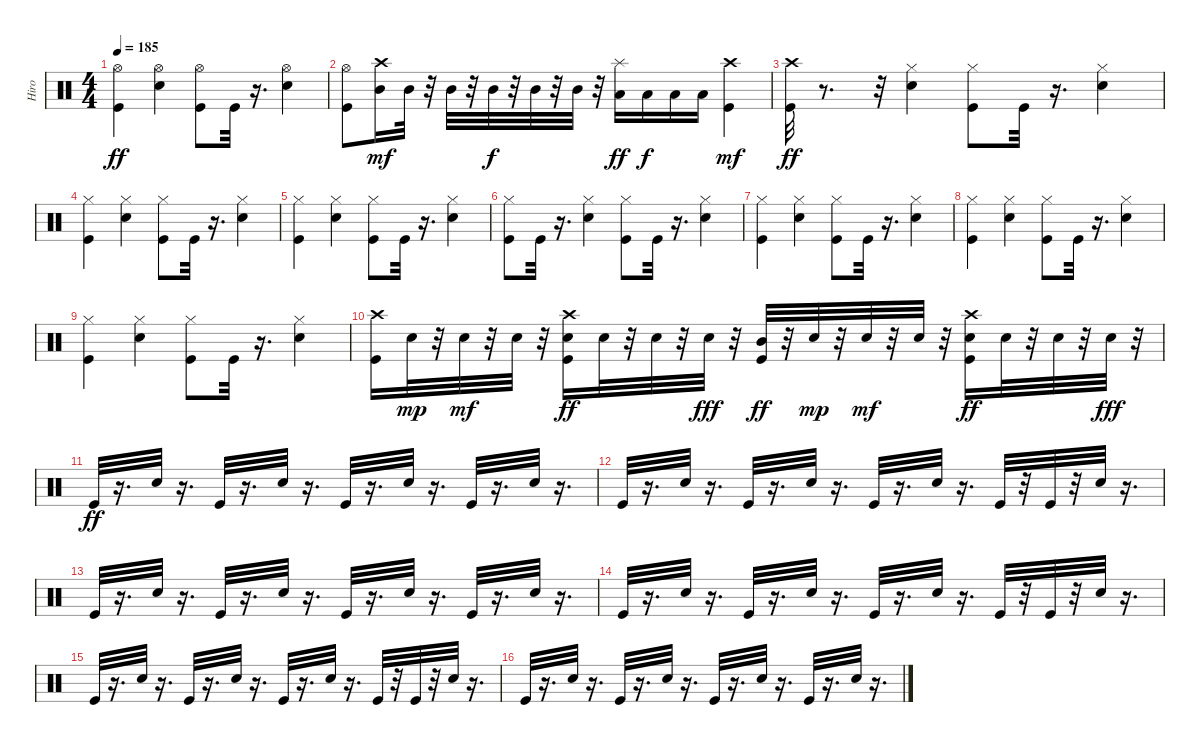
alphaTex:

\track ("Hiro" "Hiro") {instrument percussion}
\staff {score}
\articulation defaults
\ts (4 4)
\tempo 185
\clef neutral
\ks c
("Hi-Hat (open)" "Kick (hit)").4{dy ff} ("Hi-Hat (open)" "Electric Snare (hit)").4 ("Hi-Hat (open)" "Kick (hit)").8 "Kick (hit)".32 r.16{d} ("Hi-Hat (open)" "Electric Snare (hit)").4 |
("Hi-Hat (open)" "Kick (hit)").8 ("Crash high (hit)" "Mid Tom (hit)").16{dy mf} "Mid Tom (hit)".32 r.32 "Mid Tom (hit)".32 r.32 "Mid Tom (hit)".32{dy f} r.32 "Mid Tom (hit)".32 r.32 "Mid Tom (hit)".32 r.32 ("Splash (hit)" "Low Tom (hit)").16{dy ff} "Low Tom (hit)".16{dy f} "Low Tom (hit)".16 "Low Tom (hit)".16 ("Crash high (hit)" "Kick (hit)").4{dy mf} |
("Crash high (hit)" "Kick (hit)").32{dy ff} r.8{d} r.32 ("Hi-Hat (closed)" "Electric Snare (hit)").4 ("Hi-Hat (closed)" "Kick (hit)").8 "Kick (hit)".32 r.16{d} ("Hi-Hat (closed)" "Electric Snare (hit)").4 |
("Hi-Hat (closed)" "Kick (hit)").4 ("Hi-Hat (closed)" "Electric Snare (hit)").4 ("Hi-Hat (closed)" "Kick (hit)").8 "Kick (hit)".32 r.16{d} ("Hi-Hat (closed)" "Electric Snare (hit)").4 |
("Hi-Hat (closed)" "Kick (hit)").4 ("Hi-Hat (closed)" "Electric Snare (hit)").4 ("Hi-Hat (closed)" "Kick (hit)").8 "Kick (hit)".32 r.16{d} ("Hi-Hat (closed)" "Electric Snare (hit)").4 |
("Hi-Hat (closed)" "Kick (hit)").8 "Kick (hit)".32 r.16{d} ("Hi-Hat (closed)" "Electric Snare (hit)").4 ("Hi-Hat (closed)" "Kick (hit)").8 "Kick (hit)".32 r.16{d} ("Hi-Hat (closed)" "Electric Snare (hit)").4 |
("Hi-Hat (closed)" "Kick (hit)").4 ("Hi-Hat (closed)" "Electric Snare (hit)").4 ("Hi-Hat (closed)" "Kick (hit)").8 "Kick (hit)".32 r.16{d} ("Hi-Hat (closed)" "Electric Snare (hit)").4 |
("Hi-Hat (closed)" "Kick (hit)").4 ("Hi-Hat (closed)" "Electric Snare (hit)").4 ("Hi-Hat (closed)" "Kick (hit)").8 "Kick (hit)".32 r.16{d} ("Hi-Hat (closed)" "Electric Snare (hit)").4 |
("Hi-Hat (closed)" "Kick (hit)").4 ("Hi-Hat (closed)" "Electric Snare (hit)").4 ("Hi-Hat (closed)" "Kick (hit)").8 "Kick (hit)".32 r.16{d} ("Hi-Hat (closed)" "Electric Snare (hit)").4 |
("Crash high (hit)" "Kick (hit)").16 "Electric Snare (hit)".32{dy mp} r.32 "Electric Snare (hit)".32{dy mf} r.32 "Electric Snare (hit)".32 r.32 ("Crash high (hit)" "Electric Snare (hit)" "Kick (hit)").16{dy ff} "Electric Snare (hit)".32 r.32 "Electric Snare (hit)".32 r.32 "Electric Snare (hit)".32{dy fff} r.32 ("Mid Tom (hit)" "Kick (hit)").32{dy ff} r.32 "Electric Snare (hit)".32{dy mp} r.32 "Electric Snare (hit)".32{dy mf} r.32 "Electric Snare (hit)".32 r.32 ("Crash high (hit)" "Electric Snare (hit)" "Kick (hit)").16{dy ff} "Electric Snare (hit)".32 r.32 "Electric Snare (hit)".32 r.32 "Electric Snare (hit)".32{dy fff} r.32 |
"Kick (hit)".32{dy ff} r.16{d} "Electric Snare (hit)".32 r.16{d} "Kick (hit)".32 r.16{d} "Electric Snare (hit)".32 r.16{d} "Kick (hit)".32 r.16{d} "Electric Snare (hit)".32 r.16{d} "Kick (hit)".32 r.16{d} "Electric Snare (hit)".32 r.16{d} |
"Kick (hit)".32 r.16{d} "Electric Snare (hit)".32 r.16{d} "Kick (hit)".32 r.16{d} "Electric Snare (hit)".32 r.16{d} "Kick (hit)".32 r.16{d} "Electric Snare (hit)".32 r.16{d} "Kick (hit)".32 r.32 "Kick (hit)".32 r.32 "Electric Snare (hit)".32 r.16{d} |
"Kick (hit)".32 r.16{d} "Electric Snare (hit)".32 r.16{d} "Kick (hit)".32 r.16{d} "Electric Snare (hit)".32 r.16{d} "Kick (hit)".32 r.16{d} "Electric Snare (hit)".32 r.16{d} "Kick (hit)".32 r.16{d} "Electric Snare (hit)".32 r.16{d} |
"Kick (hit)".32 r.16{d} "Electric Snare (hit)".32 r.16{d} "Kick (hit)".32 r.16{d} "Electric Snare (hit)".32 r.16{d} "Kick (hit)".32 r.16{d} "Electric Snare (hit)".32 r.16{d} "Kick (hit)".32 r.32 "Kick (hit)".32 r.32 "Electric Snare (hit)".32 r.16{d} |
"Kick (hit)".32 r.16{d} "Electric Snare (hit)".32 r.16{d} "Kick (hit)".32 r.16{d} "Electric Snare (hit)".32 r.16{d} "Kick (hit)".32 r.16{d} "Electric Snare (hit)".32 r.16{d} "Kick (hit)".32 r.32 "Kick (hit)".32 r.32 "Electric Snare (hit)".32 r.16{d} |
"Kick (hit)".32 r.16{d} "Electric Snare (hit)".32 r.16{d} "Kick (hit)".32 r.16{d} "Electric Snare (hit)".32 r.16{d} "Kick (hit)".32 r.16{d} "Electric Snare (hit)".32 r.16{d} "Kick (hit)".32 r.16{d} "Electric Snare (hit)".32 r.16{d}
